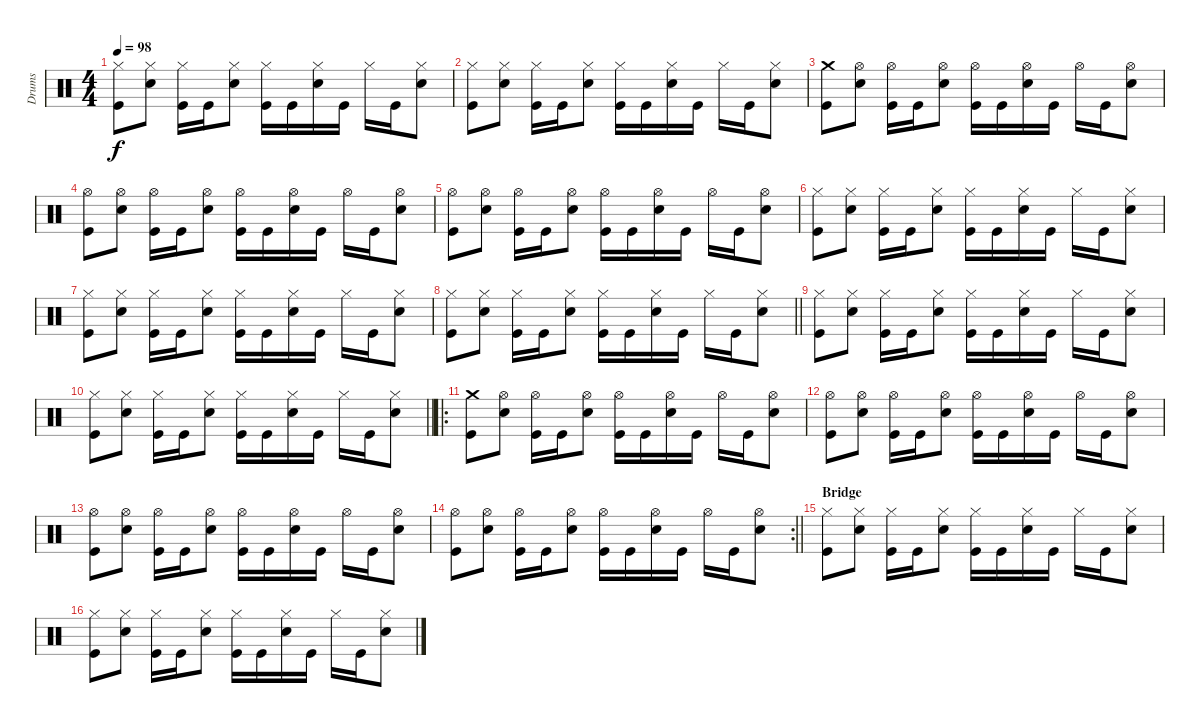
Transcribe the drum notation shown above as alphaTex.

\track ("Drums" "Drums") {instrument percussion}
\staff {score}
\articulation defaults
\ts (4 4)
\tempo 98
\clef neutral
\ks c
("Hi-Hat (closed)" "Kick (hit)").8{dy f} ("Hi-Hat (closed)" "Electric Snare (hit)").8 ("Hi-Hat (closed)" "Kick (hit)").16 "Kick (hit)".16 ("Hi-Hat (closed)" "Electric Snare (hit)").8 ("Hi-Hat (closed)" "Kick (hit)").16 "Kick (hit)".16 ("Hi-Hat (closed)" "Electric Snare (hit)").16 "Kick (hit)".16 "Hi-Hat (closed)".16 "Kick (hit)".16 ("Hi-Hat (closed)" "Electric Snare (hit)").8 |
("Hi-Hat (closed)" "Kick (hit)").8 ("Hi-Hat (closed)" "Electric Snare (hit)").8 ("Hi-Hat (closed)" "Kick (hit)").16 "Kick (hit)".16 ("Hi-Hat (closed)" "Electric Snare (hit)").8 ("Hi-Hat (closed)" "Kick (hit)").16 "Kick (hit)".16 ("Hi-Hat (closed)" "Electric Snare (hit)").16 "Kick (hit)".16 "Hi-Hat (closed)".16 "Kick (hit)".16 ("Hi-Hat (closed)" "Electric Snare (hit)").8 |
("Crash medium (hit)" "Kick (hit)").8 ("Hi-Hat (open)" "Electric Snare (hit)").8 ("Hi-Hat (open)" "Kick (hit)").16 "Kick (hit)".16 ("Hi-Hat (open)" "Electric Snare (hit)").8 ("Hi-Hat (open)" "Kick (hit)").16 "Kick (hit)".16 ("Hi-Hat (open)" "Electric Snare (hit)").16 "Kick (hit)".16 "Hi-Hat (open)".16 "Kick (hit)".16 ("Hi-Hat (open)" "Electric Snare (hit)").8 |
("Hi-Hat (open)" "Kick (hit)").8 ("Hi-Hat (open)" "Electric Snare (hit)").8 ("Hi-Hat (open)" "Kick (hit)").16 "Kick (hit)".16 ("Hi-Hat (open)" "Electric Snare (hit)").8 ("Hi-Hat (open)" "Kick (hit)").16 "Kick (hit)".16 ("Hi-Hat (open)" "Electric Snare (hit)").16 "Kick (hit)".16 "Hi-Hat (open)".16 "Kick (hit)".16 ("Hi-Hat (open)" "Electric Snare (hit)").8 |
("Hi-Hat (open)" "Kick (hit)").8 ("Hi-Hat (open)" "Electric Snare (hit)").8 ("Hi-Hat (open)" "Kick (hit)").16 "Kick (hit)".16 ("Hi-Hat (open)" "Electric Snare (hit)").8 ("Hi-Hat (open)" "Kick (hit)").16 "Kick (hit)".16 ("Hi-Hat (open)" "Electric Snare (hit)").16 "Kick (hit)".16 "Hi-Hat (open)".16 "Kick (hit)".16 ("Hi-Hat (open)" "Electric Snare (hit)").8 |
("Hi-Hat (closed)" "Kick (hit)").8 ("Hi-Hat (closed)" "Electric Snare (hit)").8 ("Hi-Hat (closed)" "Kick (hit)").16 "Kick (hit)".16 ("Hi-Hat (closed)" "Electric Snare (hit)").8 ("Hi-Hat (closed)" "Kick (hit)").16 "Kick (hit)".16 ("Hi-Hat (closed)" "Electric Snare (hit)").16 "Kick (hit)".16 "Hi-Hat (closed)".16 "Kick (hit)".16 ("Hi-Hat (closed)" "Electric Snare (hit)").8 |
("Hi-Hat (closed)" "Kick (hit)").8 ("Hi-Hat (closed)" "Electric Snare (hit)").8 ("Hi-Hat (closed)" "Kick (hit)").16 "Kick (hit)".16 ("Hi-Hat (closed)" "Electric Snare (hit)").8 ("Hi-Hat (closed)" "Kick (hit)").16 "Kick (hit)".16 ("Hi-Hat (closed)" "Electric Snare (hit)").16 "Kick (hit)".16 "Hi-Hat (closed)".16 "Kick (hit)".16 ("Hi-Hat (closed)" "Electric Snare (hit)").8 |
\barLineRight lightlight
("Hi-Hat (closed)" "Kick (hit)").8 ("Hi-Hat (closed)" "Electric Snare (hit)").8 ("Hi-Hat (closed)" "Kick (hit)").16 "Kick (hit)".16 ("Hi-Hat (closed)" "Electric Snare (hit)").8 ("Hi-Hat (closed)" "Kick (hit)").16 "Kick (hit)".16 ("Hi-Hat (closed)" "Electric Snare (hit)").16 "Kick (hit)".16 "Hi-Hat (closed)".16 "Kick (hit)".16 ("Hi-Hat (closed)" "Electric Snare (hit)").8 |
("Hi-Hat (closed)" "Kick (hit)").8 ("Hi-Hat (closed)" "Electric Snare (hit)").8 ("Hi-Hat (closed)" "Kick (hit)").16 "Kick (hit)".16 ("Hi-Hat (closed)" "Electric Snare (hit)").8 ("Hi-Hat (closed)" "Kick (hit)").16 "Kick (hit)".16 ("Hi-Hat (closed)" "Electric Snare (hit)").16 "Kick (hit)".16 "Hi-Hat (closed)".16 "Kick (hit)".16 ("Hi-Hat (closed)" "Electric Snare (hit)").8 |
\barLineRight lightlight
("Hi-Hat (closed)" "Kick (hit)").8 ("Hi-Hat (closed)" "Electric Snare (hit)").8 ("Hi-Hat (closed)" "Kick (hit)").16 "Kick (hit)".16 ("Hi-Hat (closed)" "Electric Snare (hit)").8 ("Hi-Hat (closed)" "Kick (hit)").16 "Kick (hit)".16 ("Hi-Hat (closed)" "Electric Snare (hit)").16 "Kick (hit)".16 "Hi-Hat (closed)".16 "Kick (hit)".16 ("Hi-Hat (closed)" "Electric Snare (hit)").8 |
\ro
("Crash medium (hit)" "Kick (hit)").8 ("Hi-Hat (open)" "Electric Snare (hit)").8 ("Hi-Hat (open)" "Kick (hit)").16 "Kick (hit)".16 ("Hi-Hat (open)" "Electric Snare (hit)").8 ("Hi-Hat (open)" "Kick (hit)").16 "Kick (hit)".16 ("Hi-Hat (open)" "Electric Snare (hit)").16 "Kick (hit)".16 "Hi-Hat (open)".16 "Kick (hit)".16 ("Hi-Hat (open)" "Electric Snare (hit)").8 |
("Hi-Hat (open)" "Kick (hit)").8 ("Hi-Hat (open)" "Electric Snare (hit)").8 ("Hi-Hat (open)" "Kick (hit)").16 "Kick (hit)".16 ("Hi-Hat (open)" "Electric Snare (hit)").8 ("Hi-Hat (open)" "Kick (hit)").16 "Kick (hit)".16 ("Hi-Hat (open)" "Electric Snare (hit)").16 "Kick (hit)".16 "Hi-Hat (open)".16 "Kick (hit)".16 ("Hi-Hat (open)" "Electric Snare (hit)").8 |
("Hi-Hat (open)" "Kick (hit)").8 ("Hi-Hat (open)" "Electric Snare (hit)").8 ("Hi-Hat (open)" "Kick (hit)").16 "Kick (hit)".16 ("Hi-Hat (open)" "Electric Snare (hit)").8 ("Hi-Hat (open)" "Kick (hit)").16 "Kick (hit)".16 ("Hi-Hat (open)" "Electric Snare (hit)").16 "Kick (hit)".16 "Hi-Hat (open)".16 "Kick (hit)".16 ("Hi-Hat (open)" "Electric Snare (hit)").8 |
\rc 2
\barLineRight lightlight
("Hi-Hat (open)" "Kick (hit)").8 ("Hi-Hat (open)" "Electric Snare (hit)").8 ("Hi-Hat (open)" "Kick (hit)").16 "Kick (hit)".16 ("Hi-Hat (open)" "Electric Snare (hit)").8 ("Hi-Hat (open)" "Kick (hit)").16 "Kick (hit)".16 ("Hi-Hat (open)" "Electric Snare (hit)").16 "Kick (hit)".16 "Hi-Hat (open)".16 "Kick (hit)".16 ("Hi-Hat (open)" "Electric Snare (hit)").8 |
\section ("" "Bridge")
("Hi-Hat (closed)" "Kick (hit)").8 ("Hi-Hat (closed)" "Electric Snare (hit)").8 ("Hi-Hat (closed)" "Kick (hit)").16 "Kick (hit)".16 ("Hi-Hat (closed)" "Electric Snare (hit)").8 ("Hi-Hat (closed)" "Kick (hit)").16 "Kick (hit)".16 ("Hi-Hat (closed)" "Electric Snare (hit)").16 "Kick (hit)".16 "Hi-Hat (closed)".16 "Kick (hit)".16 ("Hi-Hat (closed)" "Electric Snare (hit)").8 |
("Hi-Hat (closed)" "Kick (hit)").8 ("Hi-Hat (closed)" "Electric Snare (hit)").8 ("Hi-Hat (closed)" "Kick (hit)").16 "Kick (hit)".16 ("Hi-Hat (closed)" "Electric Snare (hit)").8 ("Hi-Hat (closed)" "Kick (hit)").16 "Kick (hit)".16 ("Hi-Hat (closed)" "Electric Snare (hit)").16 "Kick (hit)".16 "Hi-Hat (closed)".16 "Kick (hit)".16 ("Hi-Hat (closed)" "Electric Snare (hit)").8
